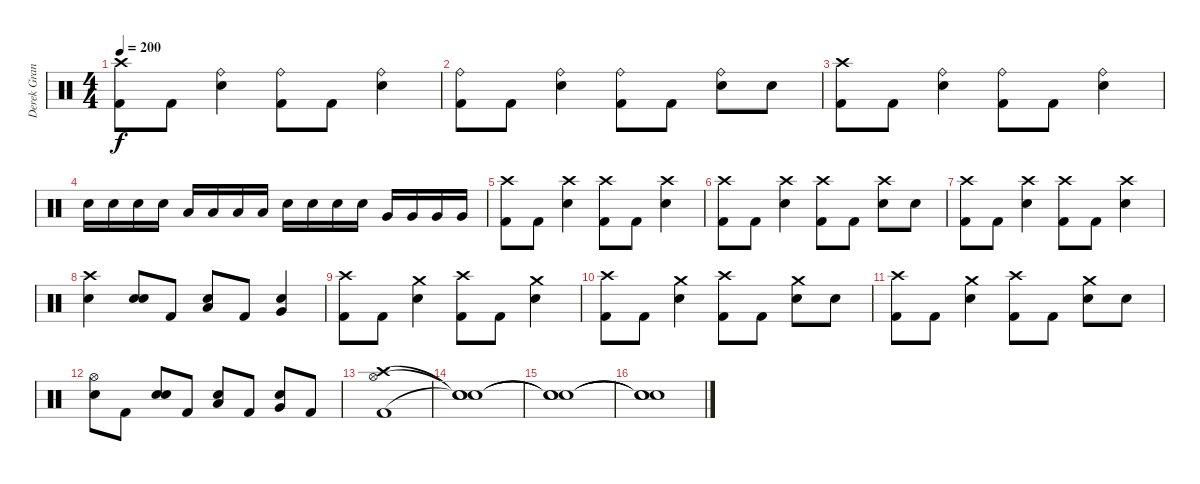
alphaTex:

\track ("Derek Grant" "Derek Gran") {instrument percussion}
\staff {score}
\articulation defaults
\ts (4 4)
\tempo 200
\clef neutral
\ks c
("Crash high (hit)" "Kick (hit) 2").8{dy f} "Kick (hit) 2".8 ("Ride (bell)" "Electric Snare (hit)").4 ("Ride (bell)" "Kick (hit) 2").8 "Kick (hit) 2".8 ("Ride (bell)" "Electric Snare (hit)").4 |
("Ride (bell)" "Kick (hit) 2").8 "Kick (hit) 2".8 ("Ride (bell)" "Electric Snare (hit)").4 ("Ride (bell)" "Kick (hit) 2").8 "Kick (hit) 2".8 ("Ride (bell)" "Electric Snare (hit)").8 "Electric Snare (hit)".8 |
("Crash high (hit)" "Kick (hit) 2").8 "Kick (hit) 2".8 ("Ride (bell)" "Electric Snare (hit)").4 ("Ride (bell)" "Kick (hit) 2").8 "Kick (hit) 2".8 ("Ride (bell)" "Electric Snare (hit)").4 |
"Electric Snare (hit)".16 "Electric Snare (hit)".16 "Electric Snare (hit)".16 "Electric Snare (hit)".16 "Low Tom (hit)".16 "Low Tom (hit)".16 "Low Tom (hit)".16 "Low Tom (hit)".16 "Electric Snare (hit)".16 "Electric Snare (hit)".16 "Electric Snare (hit)".16 "Electric Snare (hit)".16 "Very Low Tom (hit)".16 "Very Low Tom (hit)".16 "Very Low Tom (hit)".16 "Very Low Tom (hit)".16 |
("Crash high (hit)" "Kick (hit) 2").8 "Kick (hit) 2".8 ("Crash high (hit)" "Electric Snare (hit)").4 ("Crash high (hit)" "Kick (hit) 2").8 "Kick (hit) 2".8 ("Crash high (hit)" "Electric Snare (hit)").4 |
("Crash high (hit)" "Kick (hit) 2").8 "Kick (hit) 2".8 ("Crash high (hit)" "Electric Snare (hit)").4 ("Crash high (hit)" "Kick (hit) 2").8 "Kick (hit) 2".8 ("Crash high (hit)" "Electric Snare (hit)").8 "Electric Snare (hit)".8 |
("Crash high (hit)" "Kick (hit) 2").8 "Kick (hit) 2".8 ("Crash high (hit)" "Electric Snare (hit)").4 ("Crash high (hit)" "Kick (hit) 2").8 "Kick (hit) 2".8 ("Crash high (hit)" "Electric Snare (hit)").4 |
("Crash high (hit)" "Electric Snare (hit)").4 ("Electric Snare (hit)" "Electric Snare (hit)").8 "Kick (hit) 2".8 ("Low Tom (hit)" "Electric Snare (hit)").8 "Kick (hit) 2".8 ("Very Low Tom (hit)" "Electric Snare (hit)").4 |
("Crash high (hit)" "Kick (hit) 2").8 "Kick (hit) 2".8 ("Crash medium (hit)" "Electric Snare (hit)").4 ("Crash high (hit)" "Kick (hit) 2").8 "Kick (hit) 2".8 ("Crash medium (hit)" "Electric Snare (hit)").4 |
("Crash high (hit)" "Kick (hit) 2").8 "Kick (hit) 2".8 ("Crash medium (hit)" "Electric Snare (hit)").4 ("Crash high (hit)" "Kick (hit) 2").8 "Kick (hit) 2".8 ("Crash medium (hit)" "Electric Snare (hit)").8 "Electric Snare (hit)".8 |
("Crash high (hit)" "Kick (hit) 2").8 "Kick (hit) 2".8 ("Crash medium (hit)" "Electric Snare (hit)").4 ("Crash high (hit)" "Kick (hit) 2").8 "Kick (hit) 2".8 ("Crash medium (hit)" "Electric Snare (hit)").8 "Electric Snare (hit)".8 |
("Hi-Hat (open)" "Electric Snare (hit)").8 "Kick (hit) 2".8 ("Electric Snare (hit)" "Electric Snare (hit)").8 "Kick (hit) 2".8 ("Low Tom (hit)" "Electric Snare (hit)").8 "Kick (hit) 2".8 ("Very Low Tom (hit)" "Electric Snare (hit)").8 "Kick (hit) 2".8 |
("Crash high (hit)" "Hi-Hat (open)" "Kick (hit) 2").1 |
("Snare (hit)"{t} "Snare (hit)"{t} "Snare (hit)"{t}).1 |
("Snare (hit)"{t} "Snare (hit)"{t} "Snare (hit)"{t}).1 |
("Snare (hit)"{t} "Snare (hit)"{t} "Snare (hit)"{t}).1
